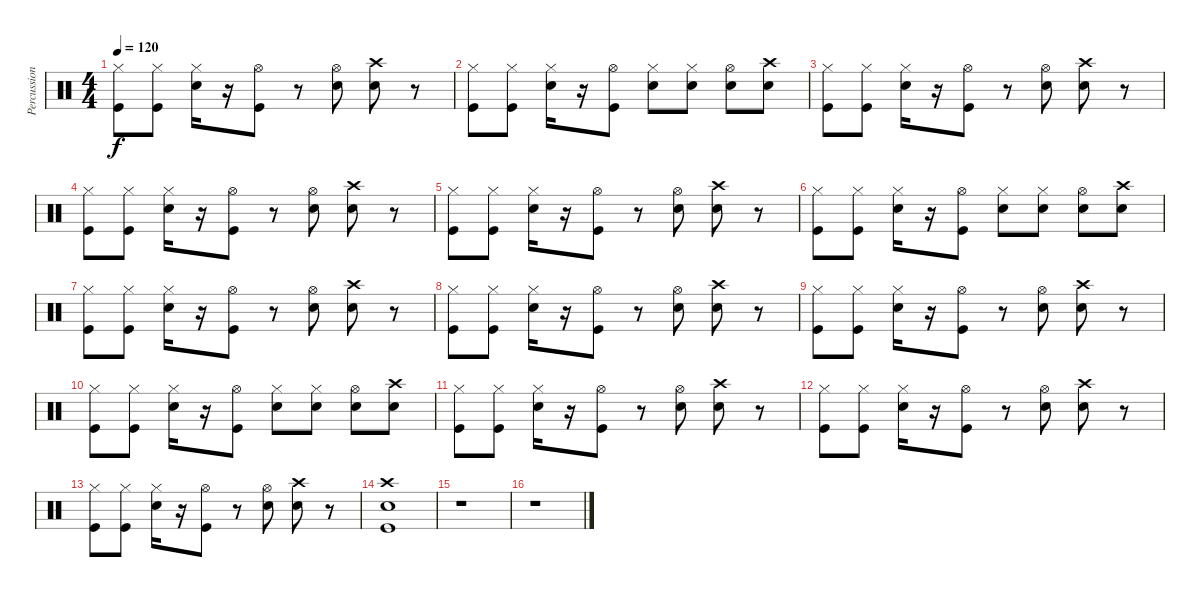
\track ("Percussion" "Percussion") {instrument percussion}
\staff {score}
\articulation defaults
\ts (4 4)
\tempo 120
\clef neutral
\ks c
("Hi-Hat (closed)" "Kick (hit)").8{dy f} ("Hi-Hat (closed)" "Kick (hit)").8 ("Hi-Hat (closed)" "Snare (hit) 2").16 r.16 ("Hi-Hat (open)" "Kick (hit)").8 r.8 ("Hi-Hat (open)" "Snare (hit) 2").8 ("Crash high (hit)" "Snare (hit) 2").8 r.8 |
("Hi-Hat (closed)" "Kick (hit)").8 ("Hi-Hat (closed)" "Kick (hit)").8 ("Hi-Hat (closed)" "Snare (hit) 2").16 r.16 ("Hi-Hat (open)" "Kick (hit)").8 ("Hi-Hat (closed)" "Electric Snare (hit)").8 ("Hi-Hat (closed)" "Electric Snare (hit)").8 ("Hi-Hat (open)" "Snare (hit) 2").8 ("Crash high (hit)" "Snare (hit) 2").8 |
("Hi-Hat (closed)" "Kick (hit)").8 ("Hi-Hat (closed)" "Kick (hit)").8 ("Hi-Hat (closed)" "Snare (hit) 2").16 r.16 ("Hi-Hat (open)" "Kick (hit)").8 r.8 ("Hi-Hat (open)" "Snare (hit) 2").8 ("Crash high (hit)" "Snare (hit) 2").8 r.8 |
("Hi-Hat (closed)" "Kick (hit)").8 ("Hi-Hat (closed)" "Kick (hit)").8 ("Hi-Hat (closed)" "Snare (hit) 2").16 r.16 ("Hi-Hat (open)" "Kick (hit)").8 r.8 ("Hi-Hat (open)" "Snare (hit) 2").8 ("Crash high (hit)" "Snare (hit) 2").8 r.8 |
("Hi-Hat (closed)" "Kick (hit)").8 ("Hi-Hat (closed)" "Kick (hit)").8 ("Hi-Hat (closed)" "Snare (hit) 2").16 r.16 ("Hi-Hat (open)" "Kick (hit)").8 r.8 ("Hi-Hat (open)" "Snare (hit) 2").8 ("Crash high (hit)" "Snare (hit) 2").8 r.8 |
("Hi-Hat (closed)" "Kick (hit)").8 ("Hi-Hat (closed)" "Kick (hit)").8 ("Hi-Hat (closed)" "Snare (hit) 2").16 r.16 ("Hi-Hat (open)" "Kick (hit)").8 ("Hi-Hat (closed)" "Electric Snare (hit)").8 ("Hi-Hat (closed)" "Electric Snare (hit)").8 ("Hi-Hat (open)" "Snare (hit) 2").8 ("Crash high (hit)" "Snare (hit) 2").8 |
("Hi-Hat (closed)" "Kick (hit)").8 ("Hi-Hat (closed)" "Kick (hit)").8 ("Hi-Hat (closed)" "Snare (hit) 2").16 r.16 ("Hi-Hat (open)" "Kick (hit)").8 r.8 ("Hi-Hat (open)" "Snare (hit) 2").8 ("Crash high (hit)" "Snare (hit) 2").8 r.8 |
("Hi-Hat (closed)" "Kick (hit)").8 ("Hi-Hat (closed)" "Kick (hit)").8 ("Hi-Hat (closed)" "Snare (hit) 2").16 r.16 ("Hi-Hat (open)" "Kick (hit)").8 r.8 ("Hi-Hat (open)" "Snare (hit) 2").8 ("Crash high (hit)" "Snare (hit) 2").8 r.8 |
("Hi-Hat (closed)" "Kick (hit)").8 ("Hi-Hat (closed)" "Kick (hit)").8 ("Hi-Hat (closed)" "Snare (hit) 2").16 r.16 ("Hi-Hat (open)" "Kick (hit)").8 r.8 ("Hi-Hat (open)" "Snare (hit) 2").8 ("Crash high (hit)" "Snare (hit) 2").8 r.8 |
("Hi-Hat (closed)" "Kick (hit)").8 ("Hi-Hat (closed)" "Kick (hit)").8 ("Hi-Hat (closed)" "Snare (hit) 2").16 r.16 ("Hi-Hat (open)" "Kick (hit)").8 ("Hi-Hat (closed)" "Electric Snare (hit)").8 ("Hi-Hat (closed)" "Electric Snare (hit)").8 ("Hi-Hat (open)" "Snare (hit) 2").8 ("Crash high (hit)" "Snare (hit) 2").8 |
("Hi-Hat (closed)" "Kick (hit)").8 ("Hi-Hat (closed)" "Kick (hit)").8 ("Hi-Hat (closed)" "Snare (hit) 2").16 r.16 ("Hi-Hat (open)" "Kick (hit)").8 r.8 ("Hi-Hat (open)" "Snare (hit) 2").8 ("Crash high (hit)" "Snare (hit) 2").8 r.8 |
("Hi-Hat (closed)" "Kick (hit)").8 ("Hi-Hat (closed)" "Kick (hit)").8 ("Hi-Hat (closed)" "Snare (hit) 2").16 r.16 ("Hi-Hat (open)" "Kick (hit)").8 r.8 ("Hi-Hat (open)" "Snare (hit) 2").8 ("Crash high (hit)" "Snare (hit) 2").8 r.8 |
("Hi-Hat (closed)" "Kick (hit)").8 ("Hi-Hat (closed)" "Kick (hit)").8 ("Hi-Hat (closed)" "Snare (hit) 2").16 r.16 ("Hi-Hat (open)" "Kick (hit)").8 r.8 ("Hi-Hat (open)" "Snare (hit) 2").8 ("Crash high (hit)" "Snare (hit) 2").8 r.8 |
("Crash high (hit)" "Snare (hit) 2" "Kick (hit)").1 |
r.1 |
r.1
